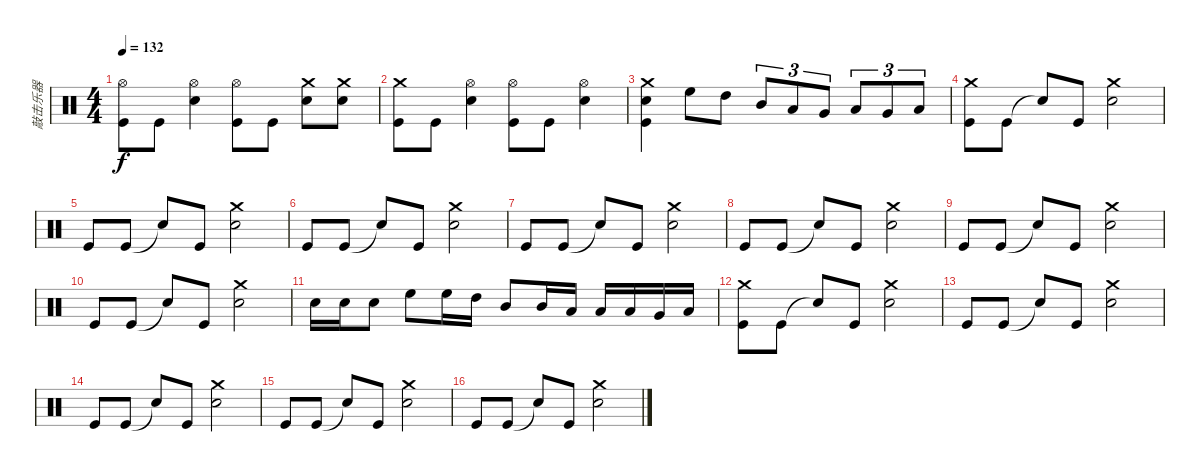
\track ("敲击乐器" "敲击乐器") {instrument percussion}
\staff {score}
\articulation defaults
\ts (4 4)
\tempo 132
\clef neutral
\ks c
("Hi-Hat (open)" "Kick (hit)").8{dy f} "Kick (hit)".8 ("Hi-Hat (open)" "Snare (hit) 2").4 ("Hi-Hat (open)" "Kick (hit)").8 "Kick (hit)".8 ("Crash medium (hit)" "Snare (hit) 2").8 ("Crash medium (hit)" "Snare (hit) 2").8 |
("Crash medium (hit)" "Kick (hit)").8 "Kick (hit)".8 ("Hi-Hat (open)" "Snare (hit) 2").4 ("Hi-Hat (open)" "Kick (hit)").8 "Kick (hit)".8 ("Hi-Hat (open)" "Snare (hit) 2").4 |
("Crash medium (hit)" "Snare (hit) 2" "Kick (hit)").4 "High Floor Tom (hit)".8 "High Tom (hit)".8 "Mid Tom (hit)".8{tu (3 2)} "Low Tom (hit)".8{tu (3 2)} "Very Low Tom (hit)".8{tu (3 2)} "Low Tom (hit)".8{tu (3 2)} "Very Low Tom (hit)".8{tu (3 2)} "Low Floor Tom (hit)".8{tu (3 2)} |
("Crash medium (hit)" "Kick (hit)").8 "Kick (hit)".8 "Snare (hit)"{t}.8 "Kick (hit)".8 ("Crash medium (hit)" "Snare (hit) 2").2 |
"Kick (hit)".8 "Kick (hit)".8 "Snare (hit)"{t}.8 "Kick (hit)".8 ("Crash medium (hit)" "Snare (hit) 2").2 |
"Kick (hit)".8 "Kick (hit)".8 "Snare (hit)"{t}.8 "Kick (hit)".8 ("Crash medium (hit)" "Snare (hit) 2").2 |
"Kick (hit)".8 "Kick (hit)".8 "Snare (hit)"{t}.8 "Kick (hit)".8 ("Crash medium (hit)" "Snare (hit) 2").2 |
"Kick (hit)".8 "Kick (hit)".8 "Snare (hit)"{t}.8 "Kick (hit)".8 ("Crash medium (hit)" "Snare (hit) 2").2 |
"Kick (hit)".8 "Kick (hit)".8 "Snare (hit)"{t}.8 "Kick (hit)".8 ("Crash medium (hit)" "Snare (hit) 2").2 |
"Kick (hit)".8 "Kick (hit)".8 "Snare (hit)"{t}.8 "Kick (hit)".8 ("Crash medium (hit)" "Snare (hit) 2").2 |
"Snare (hit) 2".16 "Snare (hit) 2".16 "Snare (hit) 2".8 "High Floor Tom (hit)".8 "High Floor Tom (hit)".16 "High Tom (hit)".16 "Mid Tom (hit)".8 "Mid Tom (hit)".16 "Low Tom (hit)".16 "Low Tom (hit)".16 "Low Tom (hit)".16 "Very Low Tom (hit)".16 "Low Floor Tom (hit)".16 |
("Crash medium (hit)" "Kick (hit)").8 "Kick (hit)".8 "Snare (hit)"{t}.8 "Kick (hit)".8 ("Crash medium (hit)" "Snare (hit) 2").2 |
"Kick (hit)".8 "Kick (hit)".8 "Snare (hit)"{t}.8 "Kick (hit)".8 ("Crash medium (hit)" "Snare (hit) 2").2 |
"Kick (hit)".8 "Kick (hit)".8 "Snare (hit)"{t}.8 "Kick (hit)".8 ("Crash medium (hit)" "Snare (hit) 2").2 |
"Kick (hit)".8 "Kick (hit)".8 "Snare (hit)"{t}.8 "Kick (hit)".8 ("Crash medium (hit)" "Snare (hit) 2").2 |
"Kick (hit)".8 "Kick (hit)".8 "Snare (hit)"{t}.8 "Kick (hit)".8 ("Crash medium (hit)" "Snare (hit) 2").2
